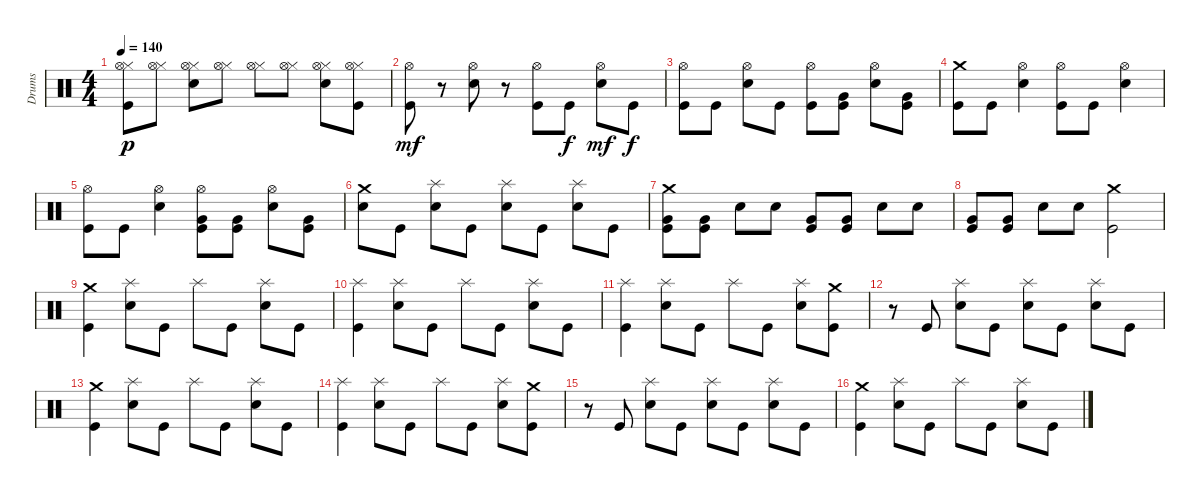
\track ("Drums" "Drums") {instrument percussion}
\staff {score}
\articulation defaults
\ts (4 4)
\tempo 140
\clef neutral
\ks c
("Hi-Hat (closed)" "Hi-Hat (open)" "Kick (hit)").8{dy p} ("Hi-Hat (closed)" "Hi-Hat (open)").8 ("Hi-Hat (closed)" "Hi-Hat (open)" "Electric Snare (hit)").8 ("Hi-Hat (closed)" "Hi-Hat (open)").8 ("Hi-Hat (closed)" "Hi-Hat (open)").8 ("Hi-Hat (closed)" "Hi-Hat (open)").8 ("Hi-Hat (closed)" "Hi-Hat (open)" "Electric Snare (hit)").8 ("Hi-Hat (closed)" "Hi-Hat (open)" "Kick (hit)").8 |
("Hi-Hat (open)" "Kick (hit)").8{dy mf} r.8 ("Hi-Hat (open)" "Electric Snare (hit)").8 r.8 ("Hi-Hat (open)" "Kick (hit)").8 "Kick (hit)".8{dy f} ("Hi-Hat (open)" "Electric Snare (hit)").8{dy mf} "Kick (hit)".8{dy f} |
("Hi-Hat (open)" "Kick (hit)").8 "Kick (hit)".8 ("Hi-Hat (open)" "Electric Snare (hit)").8 "Kick (hit)".8 ("Hi-Hat (open)" "Kick (hit)").8 ("Very Low Tom (hit)" "Kick (hit)").8 ("Hi-Hat (open)" "Electric Snare (hit)").8 ("Very Low Tom (hit)" "Kick (hit)").8 |
("Crash medium (hit)" "Kick (hit)").8 "Kick (hit)".8 ("Hi-Hat (open)" "Electric Snare (hit)").4 ("Hi-Hat (open)" "Kick (hit)").8 "Kick (hit)".8 ("Hi-Hat (open)" "Electric Snare (hit)").4 |
("Hi-Hat (open)" "Kick (hit)").8 "Kick (hit)".8 ("Hi-Hat (open)" "Electric Snare (hit)").4 ("Hi-Hat (open)" "Very Low Tom (hit)" "Kick (hit)").8 ("Very Low Tom (hit)" "Kick (hit)").8 ("Hi-Hat (open)" "Electric Snare (hit)").8 ("Very Low Tom (hit)" "Kick (hit)").8 |
("Crash medium (hit)" "Electric Snare (hit)").8 "Kick (hit)".8 ("Splash (hit)" "Electric Snare (hit)").8 "Kick (hit)".8 ("Splash (hit)" "Electric Snare (hit)").8 "Kick (hit)".8 ("Splash (hit)" "Electric Snare (hit)").8 "Kick (hit)".8 |
("Crash medium (hit)" "Very Low Tom (hit)" "Kick (hit)").8 ("Very Low Tom (hit)" "Kick (hit)").8 "Electric Snare (hit)".8 "Electric Snare (hit)".8 ("Very Low Tom (hit)" "Kick (hit)").8 ("Very Low Tom (hit)" "Kick (hit)").8 "Electric Snare (hit)".8 "Electric Snare (hit)".8 |
("Very Low Tom (hit)" "Kick (hit)").8 ("Very Low Tom (hit)" "Kick (hit)").8 "Electric Snare (hit)".8 "Electric Snare (hit)".8 ("Crash medium (hit)" "Kick (hit)").2 |
("Crash medium (hit)" "Kick (hit)").4 ("Splash (hit)" "Electric Snare (hit)").8 "Kick (hit)".8 "Splash (hit)".8 "Kick (hit)".8 ("Splash (hit)" "Electric Snare (hit)").8 "Kick (hit)".8 |
("Splash (hit)" "Kick (hit)").4 ("Splash (hit)" "Electric Snare (hit)").8 "Kick (hit)".8 "Splash (hit)".8 "Kick (hit)".8 ("Splash (hit)" "Electric Snare (hit)").8 "Kick (hit)".8 |
("Splash (hit)" "Kick (hit)").4 ("Splash (hit)" "Electric Snare (hit)").8 "Kick (hit)".8 "Splash (hit)".8 "Kick (hit)".8 ("Splash (hit)" "Electric Snare (hit)").8 ("Crash medium (hit)" "Kick (hit)").8 |
r.8 "Kick (hit)".8 ("Splash (hit)" "Electric Snare (hit)").8 "Kick (hit)".8 ("Splash (hit)" "Electric Snare (hit)").8 "Kick (hit)".8 ("Splash (hit)" "Electric Snare (hit)").8 "Kick (hit)".8 |
("Crash medium (hit)" "Kick (hit)").4 ("Splash (hit)" "Electric Snare (hit)").8 "Kick (hit)".8 "Splash (hit)".8 "Kick (hit)".8 ("Splash (hit)" "Electric Snare (hit)").8 "Kick (hit)".8 |
("Splash (hit)" "Kick (hit)").4 ("Splash (hit)" "Electric Snare (hit)").8 "Kick (hit)".8 "Splash (hit)".8 "Kick (hit)".8 ("Splash (hit)" "Electric Snare (hit)").8 ("Crash medium (hit)" "Kick (hit)").8 |
r.8 "Kick (hit)".8 ("Splash (hit)" "Electric Snare (hit)").8 "Kick (hit)".8 ("Splash (hit)" "Electric Snare (hit)").8 "Kick (hit)".8 ("Splash (hit)" "Electric Snare (hit)").8 "Kick (hit)".8 |
("Crash medium (hit)" "Kick (hit)").4 ("Splash (hit)" "Electric Snare (hit)").8 "Kick (hit)".8 "Splash (hit)".8 "Kick (hit)".8 ("Splash (hit)" "Electric Snare (hit)").8 "Kick (hit)".8
